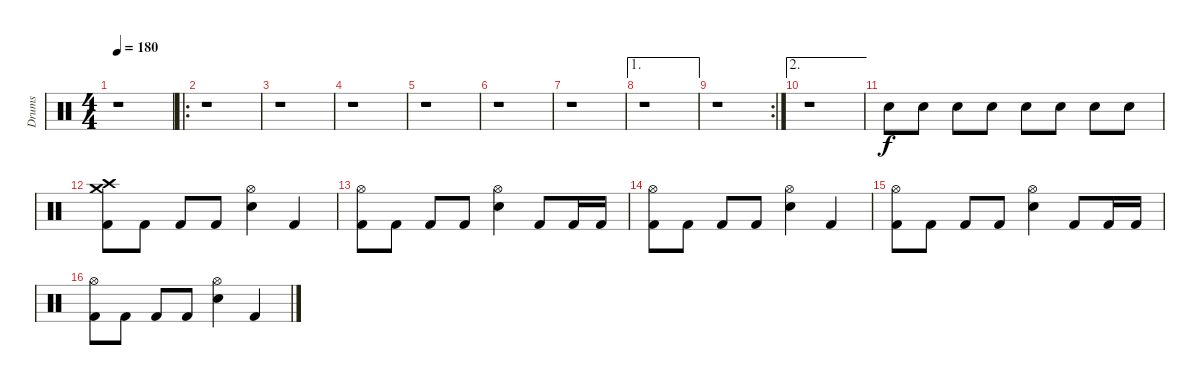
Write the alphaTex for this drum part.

\track ("Drums" "Drums") {instrument percussion}
\staff {score}
\articulation defaults
\ts (4 4)
\tempo 180
\clef neutral
\ks c
r.1{dy f} |
\ro
r.1 |
r.1 |
r.1 |
r.1 |
r.1 |
r.1 |
\ae 1
r.1 |
\rc 2
r.1 |
\ae 2
r.1 |
"Snare (hit) 2".8 "Snare (hit) 2".8 "Snare (hit) 2".8 "Snare (hit) 2".8 "Snare (hit) 2".8 "Snare (hit) 2".8 "Snare (hit) 2".8 "Snare (hit) 2".8 |
("Crash high (hit)" "Crash medium (hit)" "Kick (hit) 2").8 "Kick (hit) 2".8 "Kick (hit) 2".8 "Kick (hit) 2".8 ("Hi-Hat (open)" "Snare (hit) 2").4 "Kick (hit) 2".4 |
("Hi-Hat (open)" "Kick (hit) 2").8 "Kick (hit) 2".8 "Kick (hit) 2".8 "Kick (hit) 2".8 ("Hi-Hat (open)" "Snare (hit) 2").4 "Kick (hit) 2".8 "Kick (hit) 2".16 "Kick (hit) 2".16 |
("Hi-Hat (open)" "Kick (hit) 2").8 "Kick (hit) 2".8 "Kick (hit) 2".8 "Kick (hit) 2".8 ("Hi-Hat (open)" "Snare (hit) 2").4 "Kick (hit) 2".4 |
("Hi-Hat (open)" "Kick (hit) 2").8 "Kick (hit) 2".8 "Kick (hit) 2".8 "Kick (hit) 2".8 ("Hi-Hat (open)" "Snare (hit) 2").4 "Kick (hit) 2".8 "Kick (hit) 2".16 "Kick (hit) 2".16 |
("Hi-Hat (open)" "Kick (hit) 2").8 "Kick (hit) 2".8 "Kick (hit) 2".8 "Kick (hit) 2".8 ("Hi-Hat (open)" "Snare (hit) 2").4 "Kick (hit) 2".4
